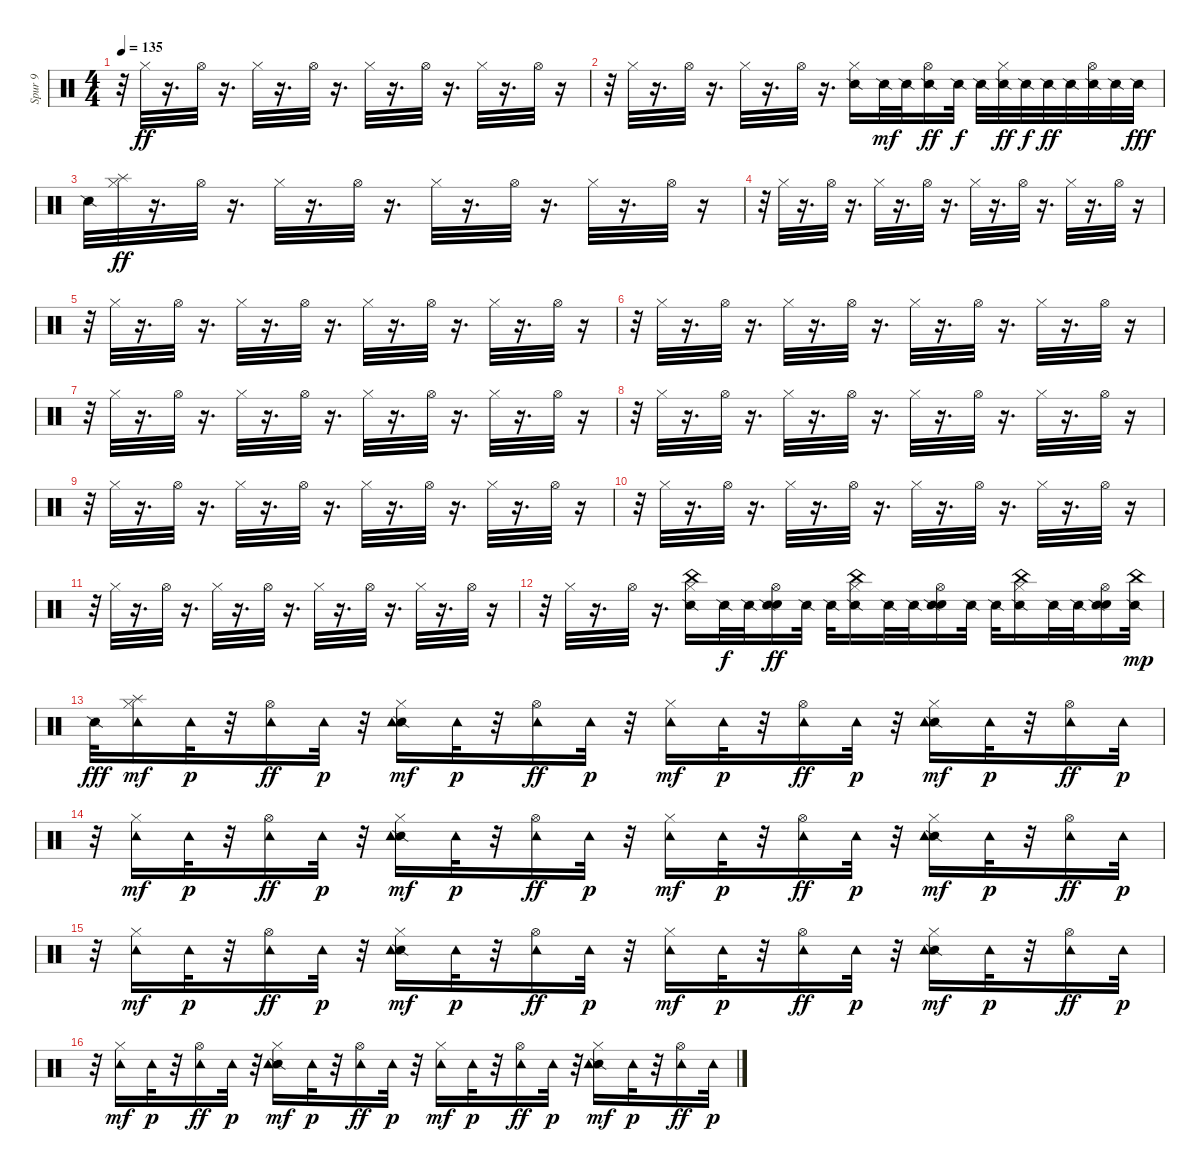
\track ("Spur 9" "Spur 9") {instrument percussion}
\staff {score}
\articulation defaults
\ts (4 4)
\tempo 135
\clef neutral
\ks c
r.32{dy ff} "Hi-Hat (closed)".32 r.16{d} "Hi-Hat (open)".32 r.16{d} "Hi-Hat (closed)".32 r.16{d} "Hi-Hat (open)".32 r.16{d} "Hi-Hat (closed)".32 r.16{d} "Hi-Hat (open)".32 r.16{d} "Hi-Hat (closed)".32 r.16{d} "Hi-Hat (open)".32 r.16 |
r.32 "Hi-Hat (closed)".32 r.16{d} "Hi-Hat (open)".32 r.16{d} "Hi-Hat (closed)".32 r.16{d} "Hi-Hat (open)".32 r.16{d} ("Snare (side stick) 2" "Hi-Hat (closed)").16 "Snare (side stick) 2".32{dy mf} "Snare (side stick) 2".32 ("Snare (side stick) 2" "Hi-Hat (open)").16{dy ff} "Snare (side stick) 2".32{dy f} "Snare (side stick) 2".32 ("Snare (side stick) 2" "Hi-Hat (closed)").32{dy ff} "Snare (side stick) 2".32{dy f} "Snare (side stick) 2".32{dy ff} "Snare (side stick) 2".32 ("Snare (side stick) 2" "Hi-Hat (open)").32 "Snare (side stick) 2".32 "Snare (side stick) 2".32{dy fff} |
"Snare (side stick) 2".32 ("Splash (hit)" "Hi-Hat (closed)").32{dy ff} r.16{d} "Hi-Hat (open)".32 r.16{d} "Hi-Hat (closed)".32 r.16{d} "Hi-Hat (open)".32 r.16{d} "Hi-Hat (closed)".32 r.16{d} "Hi-Hat (open)".32 r.16{d} "Hi-Hat (closed)".32 r.16{d} "Hi-Hat (open)".32 r.16 |
r.32 "Hi-Hat (closed)".32 r.16{d} "Hi-Hat (open)".32 r.16{d} "Hi-Hat (closed)".32 r.16{d} "Hi-Hat (open)".32 r.16{d} "Hi-Hat (closed)".32 r.16{d} "Hi-Hat (open)".32 r.16{d} "Hi-Hat (closed)".32 r.16{d} "Hi-Hat (open)".32 r.16 |
r.32 "Hi-Hat (closed)".32 r.16{d} "Hi-Hat (open)".32 r.16{d} "Hi-Hat (closed)".32 r.16{d} "Hi-Hat (open)".32 r.16{d} "Hi-Hat (closed)".32 r.16{d} "Hi-Hat (open)".32 r.16{d} "Hi-Hat (closed)".32 r.16{d} "Hi-Hat (open)".32 r.16 |
r.32 "Hi-Hat (closed)".32 r.16{d} "Hi-Hat (open)".32 r.16{d} "Hi-Hat (closed)".32 r.16{d} "Hi-Hat (open)".32 r.16{d} "Hi-Hat (closed)".32 r.16{d} "Hi-Hat (open)".32 r.16{d} "Hi-Hat (closed)".32 r.16{d} "Hi-Hat (open)".32 r.16 |
r.32 "Hi-Hat (closed)".32 r.16{d} "Hi-Hat (open)".32 r.16{d} "Hi-Hat (closed)".32 r.16{d} "Hi-Hat (open)".32 r.16{d} "Hi-Hat (closed)".32 r.16{d} "Hi-Hat (open)".32 r.16{d} "Hi-Hat (closed)".32 r.16{d} "Hi-Hat (open)".32 r.16 |
r.32 "Hi-Hat (closed)".32 r.16{d} "Hi-Hat (open)".32 r.16{d} "Hi-Hat (closed)".32 r.16{d} "Hi-Hat (open)".32 r.16{d} "Hi-Hat (closed)".32 r.16{d} "Hi-Hat (open)".32 r.16{d} "Hi-Hat (closed)".32 r.16{d} "Hi-Hat (open)".32 r.16 |
r.32 "Hi-Hat (closed)".32 r.16{d} "Hi-Hat (open)".32 r.16{d} "Hi-Hat (closed)".32 r.16{d} "Hi-Hat (open)".32 r.16{d} "Hi-Hat (closed)".32 r.16{d} "Hi-Hat (open)".32 r.16{d} "Hi-Hat (closed)".32 r.16{d} "Hi-Hat (open)".32 r.16 |
r.32 "Hi-Hat (closed)".32 r.16{d} "Hi-Hat (open)".32 r.16{d} "Hi-Hat (closed)".32 r.16{d} "Hi-Hat (open)".32 r.16{d} "Hi-Hat (closed)".32 r.16{d} "Hi-Hat (open)".32 r.16{d} "Hi-Hat (closed)".32 r.16{d} "Hi-Hat (open)".32 r.16 |
r.32 "Hi-Hat (closed)".32 r.16{d} "Hi-Hat (open)".32 r.16{d} "Hi-Hat (closed)".32 r.16{d} "Hi-Hat (open)".32 r.16{d} "Hi-Hat (closed)".32 r.16{d} "Hi-Hat (open)".32 r.16{d} "Hi-Hat (closed)".32 r.16{d} "Hi-Hat (open)".32 r.16 |
r.32 "Hi-Hat (closed)".32 r.16{d} "Hi-Hat (open)".32 r.16{d} ("Snare (side stick) 2" "Hi-Hat (closed)" "China (hit)").16 "Snare (side stick) 2".32{dy f} "Snare (side stick) 2".32 ("Snare (hit)" "Snare (side stick) 2" "Hi-Hat (open)").16{dy ff} "Snare (side stick) 2".32 "Snare (side stick) 2".32 ("Snare (side stick) 2" "Hi-Hat (closed)" "China (hit)").16 "Snare (side stick) 2".32 "Snare (side stick) 2".32 ("Snare (hit)" "Snare (side stick) 2" "Hi-Hat (open)").16 "Snare (side stick) 2".32 "Snare (side stick) 2".32 ("Snare (side stick) 2" "Hi-Hat (closed)" "China (hit)").16 "Snare (side stick) 2".32 "Snare (side stick) 2".32 ("Snare (hit)" "Snare (side stick) 2" "Hi-Hat (open)").16 ("Snare (side stick) 2" "China (hit)").32{dy mp} |
"Snare (side stick) 2".32{dy fff} ("Splash (hit)" "Hi-Hat (closed)" "Tambourine (hit)").16{dy mf} "Tambourine (hit)".32{dy p} r.32 ("Hi-Hat (open)" "Tambourine (hit)").16{dy ff} "Tambourine (hit)".32{dy p} r.32 ("Snare (side stick) 2" "Hi-Hat (closed)" "Tambourine (hit)").16{dy mf} "Tambourine (hit)".32{dy p} r.32 ("Hi-Hat (open)" "Tambourine (hit)").16{dy ff} "Tambourine (hit)".32{dy p} r.32 ("Hi-Hat (closed)" "Tambourine (hit)").16{dy mf} "Tambourine (hit)".32{dy p} r.32 ("Hi-Hat (open)" "Tambourine (hit)").16{dy ff} "Tambourine (hit)".32{dy p} r.32 ("Snare (side stick) 2" "Hi-Hat (closed)" "Tambourine (hit)").16{dy mf} "Tambourine (hit)".32{dy p} r.32 ("Hi-Hat (open)" "Tambourine (hit)").16{dy ff} "Tambourine (hit)".32{dy p} |
r.32 ("Hi-Hat (closed)" "Tambourine (hit)").16{dy mf} "Tambourine (hit)".32{dy p} r.32 ("Hi-Hat (open)" "Tambourine (hit)").16{dy ff} "Tambourine (hit)".32{dy p} r.32 ("Snare (side stick) 2" "Hi-Hat (closed)" "Tambourine (hit)").16{dy mf} "Tambourine (hit)".32{dy p} r.32 ("Hi-Hat (open)" "Tambourine (hit)").16{dy ff} "Tambourine (hit)".32{dy p} r.32 ("Hi-Hat (closed)" "Tambourine (hit)").16{dy mf} "Tambourine (hit)".32{dy p} r.32 ("Hi-Hat (open)" "Tambourine (hit)").16{dy ff} "Tambourine (hit)".32{dy p} r.32 ("Snare (side stick) 2" "Hi-Hat (closed)" "Tambourine (hit)").16{dy mf} "Tambourine (hit)".32{dy p} r.32 ("Hi-Hat (open)" "Tambourine (hit)").16{dy ff} "Tambourine (hit)".32{dy p} |
r.32 ("Hi-Hat (closed)" "Tambourine (hit)").16{dy mf} "Tambourine (hit)".32{dy p} r.32 ("Hi-Hat (open)" "Tambourine (hit)").16{dy ff} "Tambourine (hit)".32{dy p} r.32 ("Snare (side stick) 2" "Hi-Hat (closed)" "Tambourine (hit)").16{dy mf} "Tambourine (hit)".32{dy p} r.32 ("Hi-Hat (open)" "Tambourine (hit)").16{dy ff} "Tambourine (hit)".32{dy p} r.32 ("Hi-Hat (closed)" "Tambourine (hit)").16{dy mf} "Tambourine (hit)".32{dy p} r.32 ("Hi-Hat (open)" "Tambourine (hit)").16{dy ff} "Tambourine (hit)".32{dy p} r.32 ("Snare (side stick) 2" "Hi-Hat (closed)" "Tambourine (hit)").16{dy mf} "Tambourine (hit)".32{dy p} r.32 ("Hi-Hat (open)" "Tambourine (hit)").16{dy ff} "Tambourine (hit)".32{dy p} |
r.32 ("Hi-Hat (closed)" "Tambourine (hit)").16{dy mf} "Tambourine (hit)".32{dy p} r.32 ("Hi-Hat (open)" "Tambourine (hit)").16{dy ff} "Tambourine (hit)".32{dy p} r.32 ("Snare (side stick) 2" "Hi-Hat (closed)" "Tambourine (hit)").16{dy mf} "Tambourine (hit)".32{dy p} r.32 ("Hi-Hat (open)" "Tambourine (hit)").16{dy ff} "Tambourine (hit)".32{dy p} r.32 ("Hi-Hat (closed)" "Tambourine (hit)").16{dy mf} "Tambourine (hit)".32{dy p} r.32 ("Hi-Hat (open)" "Tambourine (hit)").16{dy ff} "Tambourine (hit)".32{dy p} r.32 ("Snare (side stick) 2" "Hi-Hat (closed)" "Tambourine (hit)").16{dy mf} "Tambourine (hit)".32{dy p} r.32 ("Hi-Hat (open)" "Tambourine (hit)").16{dy ff} "Tambourine (hit)".32{dy p}
